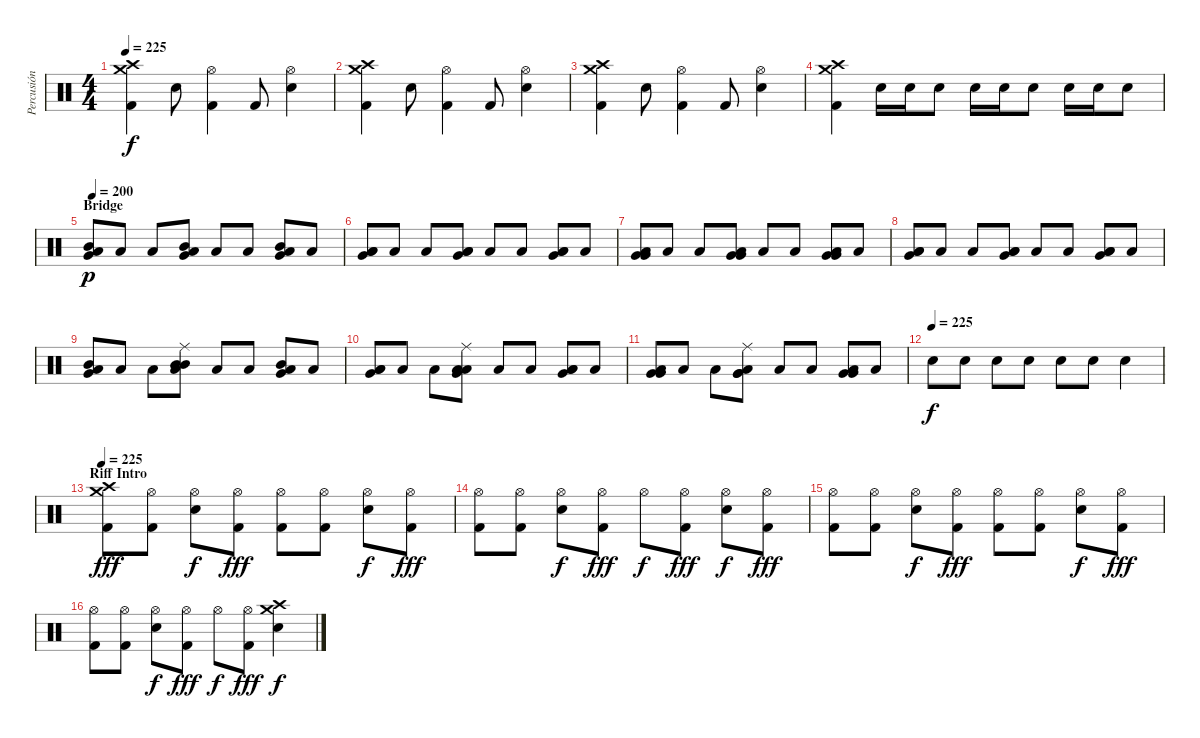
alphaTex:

\track ("Percusión" "Percusión") {instrument percussion}
\staff {score}
\articulation defaults
\ts (4 4)
\section ("" "")
\tempo 225
\clef neutral
\ks c
("Kick (hit) 2" "Crash medium (hit)" "Crash high (hit)").4{dy f} "Electric Snare (hit)".8 ("Kick (hit) 2" "Hi-Hat (open)").4 "Kick (hit) 2".8 ("Electric Snare (hit)" "Hi-Hat (open)").4 |
("Kick (hit) 2" "Crash medium (hit)" "Crash high (hit)").4 "Electric Snare (hit)".8 ("Kick (hit) 2" "Hi-Hat (open)").4 "Kick (hit) 2".8 ("Electric Snare (hit)" "Hi-Hat (open)").4 |
("Kick (hit) 2" "Crash medium (hit)" "Crash high (hit)").4 "Electric Snare (hit)".8 ("Kick (hit) 2" "Hi-Hat (open)").4 "Kick (hit) 2".8 ("Electric Snare (hit)" "Hi-Hat (open)").4 |
("Kick (hit) 2" "Crash medium (hit)" "Crash high (hit)").4 "Electric Snare (hit)".16 "Electric Snare (hit)".16 "Electric Snare (hit)".8 "Electric Snare (hit)".16 "Electric Snare (hit)".16 "Electric Snare (hit)".8 "Electric Snare (hit)".16 "Electric Snare (hit)".16 "Electric Snare (hit)".8 |
\section ("" "Bridge")
\tempo 200
("Mid Tom (hit)" "Very Low Tom (hit)" "Low Floor Tom (hit)").8{dy p} "Low Floor Tom (hit)".8 "Low Floor Tom (hit)".8 ("Mid Tom (hit)" "Very Low Tom (hit)" "Low Floor Tom (hit)").8 "Low Floor Tom (hit)".8 "Low Floor Tom (hit)".8 ("Mid Tom (hit)" "Very Low Tom (hit)" "Low Floor Tom (hit)").8 "Low Floor Tom (hit)".8 |
("Low Tom (hit)" "Very Low Tom (hit)" "Low Floor Tom (hit)").8 "Low Floor Tom (hit)".8 "Low Floor Tom (hit)".8 ("Low Tom (hit)" "Very Low Tom (hit)" "Low Floor Tom (hit)").8 "Low Floor Tom (hit)".8 "Low Floor Tom (hit)".8 ("Low Tom (hit)" "Very Low Tom (hit)" "Low Floor Tom (hit)").8 "Low Floor Tom (hit)".8 |
("Very Low Tom (hit)" "Very Low Tom (hit)" "Low Floor Tom (hit)").8 "Low Floor Tom (hit)".8 "Low Floor Tom (hit)".8 ("Very Low Tom (hit)" "Very Low Tom (hit)" "Low Floor Tom (hit)").8 "Low Floor Tom (hit)".8 "Low Floor Tom (hit)".8 ("Very Low Tom (hit)" "Very Low Tom (hit)" "Low Floor Tom (hit)").8 "Low Floor Tom (hit)".8 |
("Low Tom (hit)" "Very Low Tom (hit)" "Low Floor Tom (hit)").8 "Low Floor Tom (hit)".8 "Low Floor Tom (hit)".8 ("Low Tom (hit)" "Very Low Tom (hit)" "Low Floor Tom (hit)").8 "Low Floor Tom (hit)".8 "Low Floor Tom (hit)".8 ("Low Tom (hit)" "Very Low Tom (hit)" "Low Floor Tom (hit)").8 "Low Floor Tom (hit)".8 |
\section ("" "")
("Mid Tom (hit)" "Very Low Tom (hit)" "Low Floor Tom (hit)").8 "Low Floor Tom (hit)".8 "Low Floor Tom (hit)".8 ("Ride (middle)" "Mid Tom (hit)" "Mid Tom (hit)" "Low Floor Tom (hit)").8 "Low Floor Tom (hit)".8 "Low Floor Tom (hit)".8 ("Mid Tom (hit)" "Very Low Tom (hit)" "Low Floor Tom (hit)").8 "Low Floor Tom (hit)".8 |
("Low Tom (hit)" "Very Low Tom (hit)" "Low Floor Tom (hit)").8 "Low Floor Tom (hit)".8 "Low Floor Tom (hit)".8 ("Ride (middle)" "Very Low Tom (hit)" "Low Tom (hit)" "Low Floor Tom (hit)").8 "Low Floor Tom (hit)".8 "Low Floor Tom (hit)".8 ("Low Tom (hit)" "Very Low Tom (hit)" "Low Floor Tom (hit)").8 "Low Floor Tom (hit)".8 |
("Very Low Tom (hit)" "Very Low Tom (hit)" "Low Floor Tom (hit)").8 "Low Floor Tom (hit)".8 "Low Floor Tom (hit)".8 ("Ride (middle)" "Very Low Tom (hit)" "Very Low Tom (hit)" "Low Floor Tom (hit)").8 "Low Floor Tom (hit)".8 "Low Floor Tom (hit)".8 ("Very Low Tom (hit)" "Very Low Tom (hit)" "Low Floor Tom (hit)").8 "Low Floor Tom (hit)".8 |
\tempo (225)
"Electric Snare (hit)".8{dy f} "Electric Snare (hit)".8 "Electric Snare (hit)".8 "Electric Snare (hit)".8 "Electric Snare (hit)".8 "Electric Snare (hit)".8 "Electric Snare (hit)".4 |
\section ("" "Riff Intro")
\tempo 225
("Kick (hit) 2" "Crash medium (hit)" "Crash high (hit)").8{dy fff} ("Kick (hit) 2" "Hi-Hat (open)").8 ("Electric Snare (hit)" "Hi-Hat (open)").8{dy f} ("Kick (hit) 2" "Hi-Hat (open)").8{dy fff} ("Kick (hit) 2" "Hi-Hat (open)").8 ("Kick (hit) 2" "Hi-Hat (open)").8 ("Electric Snare (hit)" "Hi-Hat (open)").8{dy f} ("Kick (hit) 2" "Hi-Hat (open)").8{dy fff} |
("Kick (hit) 2" "Hi-Hat (open)").8 ("Kick (hit) 2" "Hi-Hat (open)").8 ("Electric Snare (hit)" "Hi-Hat (open)").8{dy f} ("Kick (hit) 2" "Hi-Hat (open)").8{dy fff} "Hi-Hat (open)".8{dy f} ("Kick (hit) 2" "Hi-Hat (open)").8{dy fff} ("Electric Snare (hit)" "Hi-Hat (open)").8{dy f} ("Kick (hit) 2" "Hi-Hat (open)").8{dy fff} |
("Kick (hit) 2" "Hi-Hat (open)").8 ("Kick (hit) 2" "Hi-Hat (open)").8 ("Electric Snare (hit)" "Hi-Hat (open)").8{dy f} ("Kick (hit) 2" "Hi-Hat (open)").8{dy fff} ("Kick (hit) 2" "Hi-Hat (open)").8 ("Kick (hit) 2" "Hi-Hat (open)").8 ("Electric Snare (hit)" "Hi-Hat (open)").8{dy f} ("Kick (hit) 2" "Hi-Hat (open)").8{dy fff} |
("Kick (hit) 2" "Hi-Hat (open)").8 ("Kick (hit) 2" "Hi-Hat (open)").8 ("Electric Snare (hit)" "Hi-Hat (open)").8{dy f} ("Kick (hit) 2" "Hi-Hat (open)").8{dy fff} "Hi-Hat (open)".8{dy f} ("Kick (hit) 2" "Hi-Hat (open)").8{dy fff} ("Electric Snare (hit)" "Crash medium (hit)" "Crash high (hit)").4{dy f}
